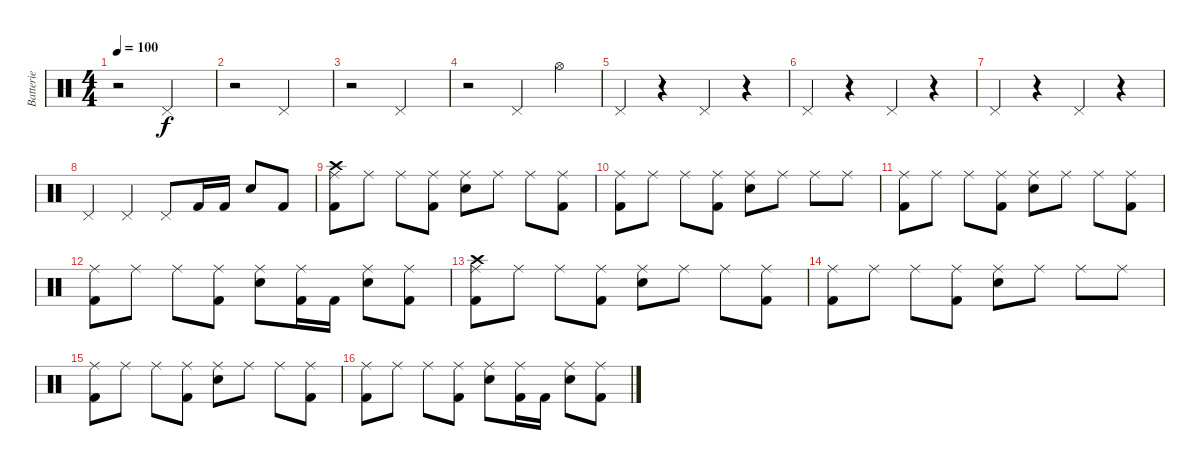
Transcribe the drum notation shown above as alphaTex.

\track ("Batterie" "Batterie") {instrument percussion}
\staff {score}
\articulation defaults
\ts (4 4)
\tempo 100
\clef neutral
\ks c
r.2{dy f} "Pedal Hi-Hat (hit)".2 |
r.2 "Pedal Hi-Hat (hit)".2 |
r.2 "Pedal Hi-Hat (hit)".2 |
r.2 "Pedal Hi-Hat (hit)".4 "Hi-Hat (open)".4 |
"Pedal Hi-Hat (hit)".4 r.4 "Pedal Hi-Hat (hit)".4 r.4 |
"Pedal Hi-Hat (hit)".4 r.4 "Pedal Hi-Hat (hit)".4 r.4 |
"Pedal Hi-Hat (hit)".4 r.4 "Pedal Hi-Hat (hit)".4 r.4 |
"Pedal Hi-Hat (hit)".4 "Pedal Hi-Hat (hit)".4 "Pedal Hi-Hat (hit)".8 "Kick (hit) 2".16 "Kick (hit) 2".16 "Snare (hit) 2".8 "Kick (hit) 2".8 |
("Crash high (hit)" "Ride (middle)" "Kick (hit) 2").8 "Ride (middle)".8 "Ride (middle)".8 ("Ride (middle)" "Kick (hit) 2").8 ("Ride (middle)" "Electric Snare (hit)").8 "Ride (middle)".8 "Ride (middle)".8 ("Ride (middle)" "Kick (hit) 2").8 |
("Ride (middle)" "Kick (hit) 2").8 "Ride (middle)".8 "Ride (middle)".8 ("Ride (middle)" "Kick (hit) 2").8 ("Ride (middle)" "Electric Snare (hit)").8 "Ride (middle)".8 "Ride (middle)".8 "Ride (middle)".8 |
("Ride (middle)" "Kick (hit) 2").8 "Ride (middle)".8 "Ride (middle)".8 ("Ride (middle)" "Kick (hit) 2").8 ("Ride (middle)" "Electric Snare (hit)").8 "Ride (middle)".8 "Ride (middle)".8 ("Ride (middle)" "Kick (hit) 2").8 |
("Ride (middle)" "Kick (hit) 2").8 "Ride (middle)".8 "Ride (middle)".8 ("Ride (middle)" "Kick (hit) 2").8 ("Ride (middle)" "Electric Snare (hit)").8 ("Ride (middle)" "Kick (hit) 2").16 "Kick (hit) 2".16 ("Ride (middle)" "Electric Snare (hit)").8 ("Ride (middle)" "Kick (hit) 2").8 |
("Crash high (hit)" "Ride (middle)" "Kick (hit) 2").8 "Ride (middle)".8 "Ride (middle)".8 ("Ride (middle)" "Kick (hit) 2").8 ("Ride (middle)" "Electric Snare (hit)").8 "Ride (middle)".8 "Ride (middle)".8 ("Ride (middle)" "Kick (hit) 2").8 |
("Ride (middle)" "Kick (hit) 2").8 "Ride (middle)".8 "Ride (middle)".8 ("Ride (middle)" "Kick (hit) 2").8 ("Ride (middle)" "Electric Snare (hit)").8 "Ride (middle)".8 "Ride (middle)".8 "Ride (middle)".8 |
("Ride (middle)" "Kick (hit) 2").8 "Ride (middle)".8 "Ride (middle)".8 ("Ride (middle)" "Kick (hit) 2").8 ("Ride (middle)" "Electric Snare (hit)").8 "Ride (middle)".8 "Ride (middle)".8 ("Ride (middle)" "Kick (hit) 2").8 |
("Ride (middle)" "Kick (hit) 2").8 "Ride (middle)".8 "Ride (middle)".8 ("Ride (middle)" "Kick (hit) 2").8 ("Ride (middle)" "Electric Snare (hit)").8 ("Ride (middle)" "Kick (hit) 2").16 "Kick (hit) 2".16 ("Ride (middle)" "Electric Snare (hit)").8 ("Ride (middle)" "Kick (hit) 2").8
